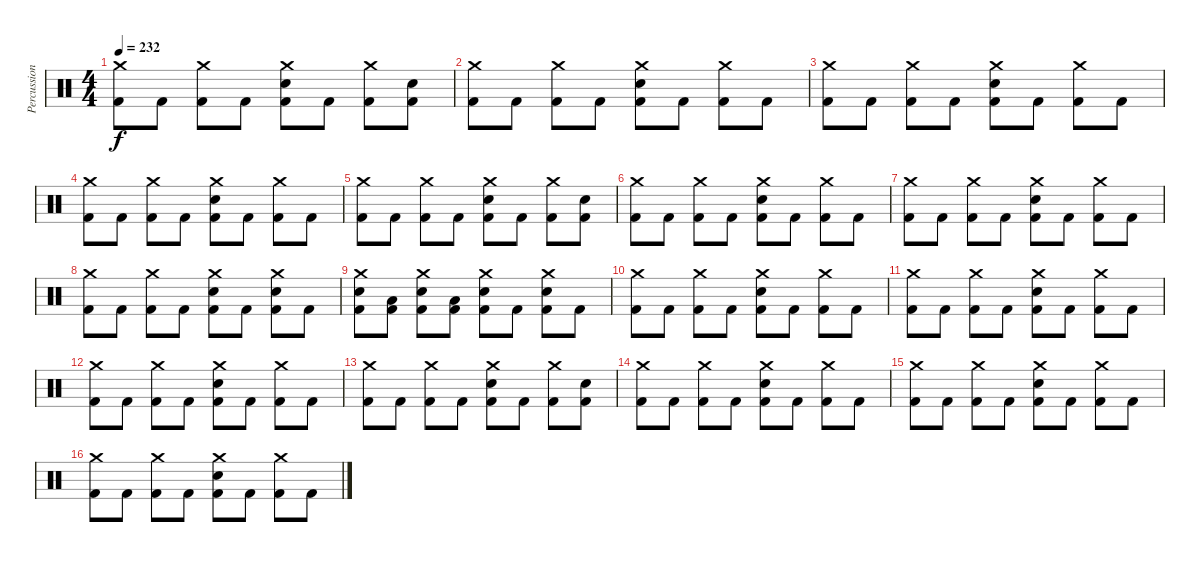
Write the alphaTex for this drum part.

\track ("Percussions" "Percussion") {instrument percussion}
\staff {score}
\articulation defaults
\ts (4 4)
\tempo 232
\clef neutral
\ks c
("Crash medium (hit)" "Kick (hit) 2").8{dy f} "Kick (hit) 2".8 ("Crash medium (hit)" "Kick (hit) 2").8 "Kick (hit) 2".8 ("Crash medium (hit)" "Electric Snare (hit)" "Kick (hit) 2").8 "Kick (hit) 2".8 ("Crash medium (hit)" "Kick (hit) 2").8 ("Electric Snare (hit)" "Kick (hit) 2").8 |
("Crash medium (hit)" "Kick (hit) 2").8 "Kick (hit) 2".8 ("Crash medium (hit)" "Kick (hit) 2").8 "Kick (hit) 2".8 ("Crash medium (hit)" "Electric Snare (hit)" "Kick (hit) 2").8 "Kick (hit) 2".8 ("Crash medium (hit)" "Kick (hit) 2").8 "Kick (hit) 2".8 |
("Crash medium (hit)" "Kick (hit) 2").8 "Kick (hit) 2".8 ("Crash medium (hit)" "Kick (hit) 2").8 "Kick (hit) 2".8 ("Crash medium (hit)" "Electric Snare (hit)" "Kick (hit) 2").8 "Kick (hit) 2".8 ("Crash medium (hit)" "Kick (hit) 2").8 "Kick (hit) 2".8 |
("Crash medium (hit)" "Kick (hit) 2").8 "Kick (hit) 2".8 ("Crash medium (hit)" "Kick (hit) 2").8 "Kick (hit) 2".8 ("Crash medium (hit)" "Electric Snare (hit)" "Kick (hit) 2").8 "Kick (hit) 2".8 ("Crash medium (hit)" "Kick (hit) 2").8 "Kick (hit) 2".8 |
("Crash medium (hit)" "Kick (hit) 2").8 "Kick (hit) 2".8 ("Crash medium (hit)" "Kick (hit) 2").8 "Kick (hit) 2".8 ("Crash medium (hit)" "Electric Snare (hit)" "Kick (hit) 2").8 "Kick (hit) 2".8 ("Crash medium (hit)" "Kick (hit) 2").8 ("Electric Snare (hit)" "Kick (hit) 2").8 |
("Crash medium (hit)" "Kick (hit) 2").8 "Kick (hit) 2".8 ("Crash medium (hit)" "Kick (hit) 2").8 "Kick (hit) 2".8 ("Crash medium (hit)" "Electric Snare (hit)" "Kick (hit) 2").8 "Kick (hit) 2".8 ("Crash medium (hit)" "Kick (hit) 2").8 "Kick (hit) 2".8 |
("Crash medium (hit)" "Kick (hit) 2").8 "Kick (hit) 2".8 ("Crash medium (hit)" "Kick (hit) 2").8 "Kick (hit) 2".8 ("Crash medium (hit)" "Electric Snare (hit)" "Kick (hit) 2").8 "Kick (hit) 2".8 ("Crash medium (hit)" "Kick (hit) 2").8 "Kick (hit) 2".8 |
("Crash medium (hit)" "Kick (hit) 2").8 "Kick (hit) 2".8 ("Crash medium (hit)" "Kick (hit) 2").8 "Kick (hit) 2".8 ("Crash medium (hit)" "Electric Snare (hit)" "Kick (hit) 2").8 "Kick (hit) 2".8 ("Crash medium (hit)" "Electric Snare (hit)" "Kick (hit) 2").8 "Kick (hit) 2".8 |
("Crash medium (hit)" "Electric Snare (hit)" "Kick (hit) 2").8 ("Low Tom (hit)" "Kick (hit) 2").8 ("Crash medium (hit)" "Electric Snare (hit)" "Kick (hit) 2").8 ("Low Floor Tom (hit)" "Kick (hit) 2").8 ("Crash medium (hit)" "Electric Snare (hit)" "Kick (hit) 2").8 "Kick (hit) 2".8 ("Crash medium (hit)" "Electric Snare (hit)" "Kick (hit) 2").8 "Kick (hit) 2".8 |
("Crash medium (hit)" "Kick (hit) 2").8 "Kick (hit) 2".8 ("Crash medium (hit)" "Kick (hit) 2").8 "Kick (hit) 2".8 ("Crash medium (hit)" "Electric Snare (hit)" "Kick (hit) 2").8 "Kick (hit) 2".8 ("Crash medium (hit)" "Kick (hit) 2").8 "Kick (hit) 2".8 |
("Crash medium (hit)" "Kick (hit) 2").8 "Kick (hit) 2".8 ("Crash medium (hit)" "Kick (hit) 2").8 "Kick (hit) 2".8 ("Crash medium (hit)" "Electric Snare (hit)" "Kick (hit) 2").8 "Kick (hit) 2".8 ("Crash medium (hit)" "Kick (hit) 2").8 "Kick (hit) 2".8 |
("Crash medium (hit)" "Kick (hit) 2").8 "Kick (hit) 2".8 ("Crash medium (hit)" "Kick (hit) 2").8 "Kick (hit) 2".8 ("Crash medium (hit)" "Electric Snare (hit)" "Kick (hit) 2").8 "Kick (hit) 2".8 ("Crash medium (hit)" "Kick (hit) 2").8 "Kick (hit) 2".8 |
("Crash medium (hit)" "Kick (hit) 2").8 "Kick (hit) 2".8 ("Crash medium (hit)" "Kick (hit) 2").8 "Kick (hit) 2".8 ("Crash medium (hit)" "Electric Snare (hit)" "Kick (hit) 2").8 "Kick (hit) 2".8 ("Crash medium (hit)" "Kick (hit) 2").8 ("Electric Snare (hit)" "Kick (hit) 2").8 |
("Crash medium (hit)" "Kick (hit) 2").8 "Kick (hit) 2".8 ("Crash medium (hit)" "Kick (hit) 2").8 "Kick (hit) 2".8 ("Crash medium (hit)" "Electric Snare (hit)" "Kick (hit) 2").8 "Kick (hit) 2".8 ("Crash medium (hit)" "Kick (hit) 2").8 "Kick (hit) 2".8 |
("Crash medium (hit)" "Kick (hit) 2").8 "Kick (hit) 2".8 ("Crash medium (hit)" "Kick (hit) 2").8 "Kick (hit) 2".8 ("Crash medium (hit)" "Electric Snare (hit)" "Kick (hit) 2").8 "Kick (hit) 2".8 ("Crash medium (hit)" "Kick (hit) 2").8 "Kick (hit) 2".8 |
("Crash medium (hit)" "Kick (hit) 2").8 "Kick (hit) 2".8 ("Crash medium (hit)" "Kick (hit) 2").8 "Kick (hit) 2".8 ("Crash medium (hit)" "Electric Snare (hit)" "Kick (hit) 2").8 "Kick (hit) 2".8 ("Crash medium (hit)" "Kick (hit) 2").8 "Kick (hit) 2".8
